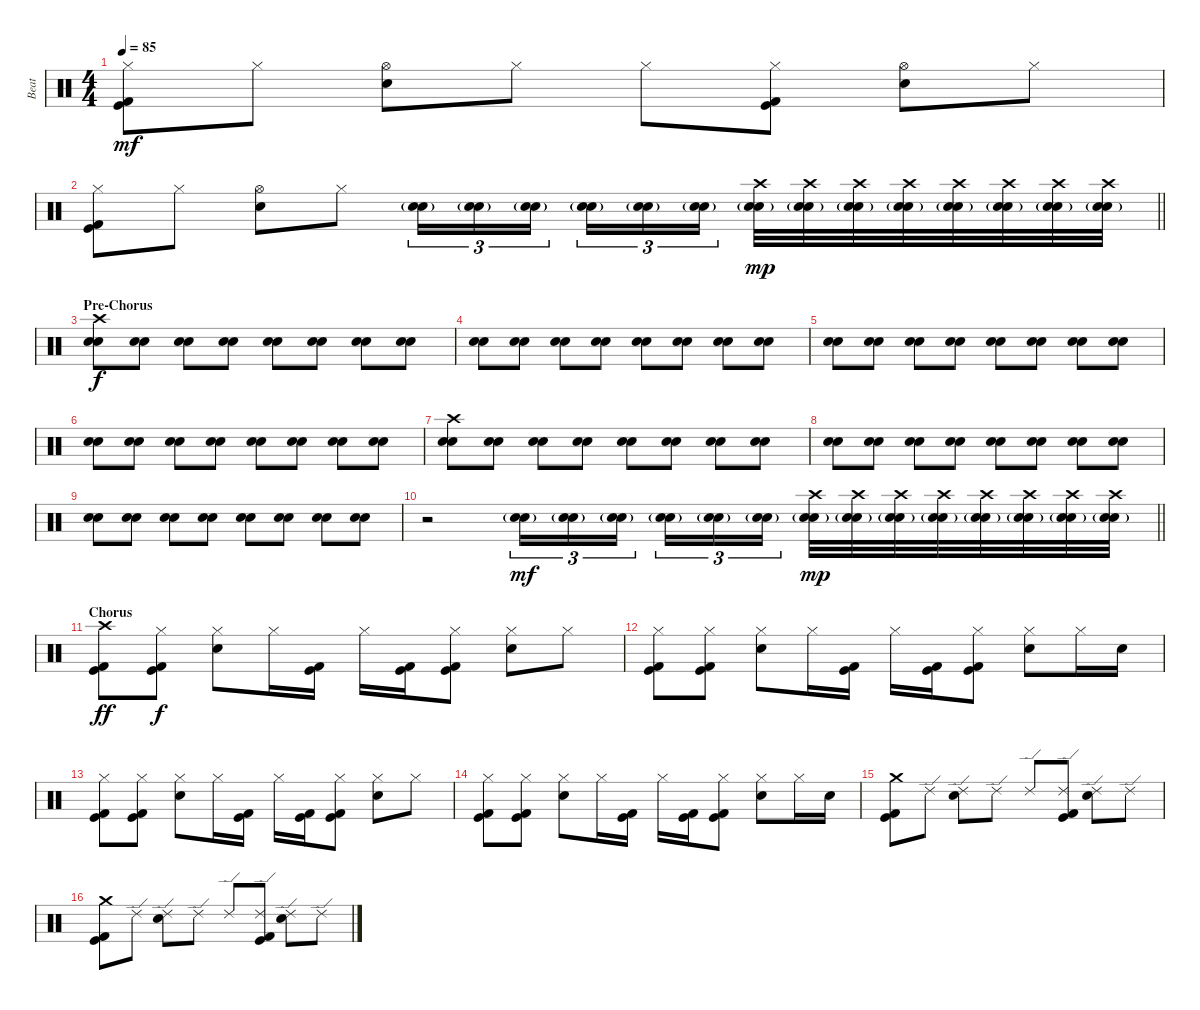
\track ("Beat" "Beat") {instrument percussion}
\staff {score}
\articulation defaults
\ts (4 4)
\tempo 85
\clef neutral
\ks c
("Hi-Hat (closed)" "Kick (hit)" "Kick (hit) 2").8{dy mf} "Hi-Hat (closed)".8 ("Hi-Hat (open)" "Snare (hit) 2").8 "Hi-Hat (closed)".8 "Hi-Hat (closed)".8 ("Hi-Hat (closed)" "Kick (hit)" "Kick (hit) 2").8 ("Hi-Hat (open)" "Snare (hit) 2").8 "Hi-Hat (closed)".8 |
\barLineRight lightlight
("Hi-Hat (closed)" "Kick (hit)" "Kick (hit) 2").8 "Hi-Hat (closed)".8 ("Hi-Hat (open)" "Snare (hit) 2").8 "Hi-Hat (closed)".8 ("Electric Snare (hit)" "Snare (hit) 2"{g}).16{tu (3 2)} ("Electric Snare (hit)" "Snare (hit) 2"{g}).16{tu (3 2)} ("Electric Snare (hit)" "Snare (hit) 2"{g}).16{tu (3 2) beam splitsecondary} ("Electric Snare (hit)" "Snare (hit) 2"{g}).16{tu (3 2)} ("Electric Snare (hit)" "Snare (hit) 2"{g}).16{tu (3 2)} ("Electric Snare (hit)" "Snare (hit) 2"{g}).16{tu (3 2)} ("Crash high (hit)" "Electric Snare (hit)" "Snare (hit) 2"{g}).32{dy mp} ("Crash high (hit)" "Electric Snare (hit)" "Snare (hit) 2"{g}).32 ("Crash high (hit)" "Electric Snare (hit)" "Snare (hit) 2"{g}).32 ("Crash high (hit)" "Electric Snare (hit)" "Snare (hit) 2"{g}).32 ("Crash high (hit)" "Electric Snare (hit)" "Snare (hit) 2"{g}).32 ("Crash high (hit)" "Electric Snare (hit)" "Snare (hit) 2"{g}).32 ("Crash high (hit)" "Electric Snare (hit)" "Snare (hit) 2"{g}).32 ("Crash high (hit)" "Electric Snare (hit)" "Snare (hit) 2"{g}).32 |
\section ("" "Pre-Chorus")
("Crash high (hit)" "Hand Clap (hit)" "Hand Clap (hit)").8{dy f} ("Hand Clap (hit)" "Hand Clap (hit)").8 ("Hand Clap (hit)" "Hand Clap (hit)").8 ("Hand Clap (hit)" "Hand Clap (hit)").8 ("Hand Clap (hit)" "Hand Clap (hit)").8 ("Hand Clap (hit)" "Hand Clap (hit)").8 ("Hand Clap (hit)" "Hand Clap (hit)").8 ("Hand Clap (hit)" "Hand Clap (hit)").8 |
("Hand Clap (hit)" "Hand Clap (hit)").8 ("Hand Clap (hit)" "Hand Clap (hit)").8 ("Hand Clap (hit)" "Hand Clap (hit)").8 ("Hand Clap (hit)" "Hand Clap (hit)").8 ("Hand Clap (hit)" "Hand Clap (hit)").8 ("Hand Clap (hit)" "Hand Clap (hit)").8 ("Hand Clap (hit)" "Hand Clap (hit)").8 ("Hand Clap (hit)" "Hand Clap (hit)").8 |
("Hand Clap (hit)" "Hand Clap (hit)").8 ("Hand Clap (hit)" "Hand Clap (hit)").8 ("Hand Clap (hit)" "Hand Clap (hit)").8 ("Hand Clap (hit)" "Hand Clap (hit)").8 ("Hand Clap (hit)" "Hand Clap (hit)").8 ("Hand Clap (hit)" "Hand Clap (hit)").8 ("Hand Clap (hit)" "Hand Clap (hit)").8 ("Hand Clap (hit)" "Hand Clap (hit)").8 |
("Hand Clap (hit)" "Hand Clap (hit)").8 ("Hand Clap (hit)" "Hand Clap (hit)").8 ("Hand Clap (hit)" "Hand Clap (hit)").8 ("Hand Clap (hit)" "Hand Clap (hit)").8 ("Hand Clap (hit)" "Hand Clap (hit)").8 ("Hand Clap (hit)" "Hand Clap (hit)").8 ("Hand Clap (hit)" "Hand Clap (hit)").8 ("Hand Clap (hit)" "Hand Clap (hit)").8 |
("Crash high (hit)" "Hand Clap (hit)" "Hand Clap (hit)").8 ("Hand Clap (hit)" "Hand Clap (hit)").8 ("Hand Clap (hit)" "Hand Clap (hit)").8 ("Hand Clap (hit)" "Hand Clap (hit)").8 ("Hand Clap (hit)" "Hand Clap (hit)").8 ("Hand Clap (hit)" "Hand Clap (hit)").8 ("Hand Clap (hit)" "Hand Clap (hit)").8 ("Hand Clap (hit)" "Hand Clap (hit)").8 |
("Hand Clap (hit)" "Hand Clap (hit)").8 ("Hand Clap (hit)" "Hand Clap (hit)").8 ("Hand Clap (hit)" "Hand Clap (hit)").8 ("Hand Clap (hit)" "Hand Clap (hit)").8 ("Hand Clap (hit)" "Hand Clap (hit)").8 ("Hand Clap (hit)" "Hand Clap (hit)").8 ("Hand Clap (hit)" "Hand Clap (hit)").8 ("Hand Clap (hit)" "Hand Clap (hit)").8 |
("Hand Clap (hit)" "Hand Clap (hit)").8 ("Hand Clap (hit)" "Hand Clap (hit)").8 ("Hand Clap (hit)" "Hand Clap (hit)").8 ("Hand Clap (hit)" "Hand Clap (hit)").8 ("Hand Clap (hit)" "Hand Clap (hit)").8 ("Hand Clap (hit)" "Hand Clap (hit)").8 ("Hand Clap (hit)" "Hand Clap (hit)").8 ("Hand Clap (hit)" "Hand Clap (hit)").8 |
\barLineRight lightlight
r.2 ("Electric Snare (hit)" "Snare (hit) 2"{g}).16{tu (3 2) dy mf} ("Electric Snare (hit)" "Snare (hit) 2"{g}).16{tu (3 2)} ("Electric Snare (hit)" "Snare (hit) 2"{g}).16{tu (3 2) beam splitsecondary} ("Electric Snare (hit)" "Snare (hit) 2"{g}).16{tu (3 2)} ("Electric Snare (hit)" "Snare (hit) 2"{g}).16{tu (3 2)} ("Electric Snare (hit)" "Snare (hit) 2"{g}).16{tu (3 2)} ("Crash high (hit)" "Electric Snare (hit)" "Snare (hit) 2"{g}).32{dy mp} ("Crash high (hit)" "Electric Snare (hit)" "Snare (hit) 2"{g}).32 ("Crash high (hit)" "Electric Snare (hit)" "Snare (hit) 2"{g}).32 ("Crash high (hit)" "Electric Snare (hit)" "Snare (hit) 2"{g}).32 ("Crash high (hit)" "Electric Snare (hit)" "Snare (hit) 2"{g}).32 ("Crash high (hit)" "Electric Snare (hit)" "Snare (hit) 2"{g}).32 ("Crash high (hit)" "Electric Snare (hit)" "Snare (hit) 2"{g}).32 ("Crash high (hit)" "Electric Snare (hit)" "Snare (hit) 2"{g}).32 |
\section ("" "Chorus")
("Crash high (hit)" "Kick (hit)" "Kick (hit) 2").8{dy ff} ("Hi-Hat (closed)" "Kick (hit)" "Kick (hit) 2").8{dy f} ("Hi-Hat (closed)" "Snare (hit) 2").8 "Hi-Hat (closed)".16 ("Kick (hit)" "Kick (hit) 2").16 "Hi-Hat (closed)".16 ("Kick (hit)" "Kick (hit) 2").16 ("Hi-Hat (closed)" "Kick (hit)" "Kick (hit) 2").8 ("Hi-Hat (closed)" "Snare (hit) 2").8 "Hi-Hat (closed)".8 |
("Hi-Hat (closed)" "Kick (hit)" "Kick (hit) 2").8 ("Hi-Hat (closed)" "Kick (hit)" "Kick (hit) 2").8 ("Hi-Hat (closed)" "Snare (hit) 2").8 "Hi-Hat (closed)".16 ("Kick (hit)" "Kick (hit) 2").16 "Hi-Hat (closed)".16 ("Kick (hit)" "Kick (hit) 2").16 ("Hi-Hat (closed)" "Kick (hit)" "Kick (hit) 2").8 ("Hi-Hat (closed)" "Snare (hit) 2").8 "Hi-Hat (closed)".16 "Snare (hit) 2".16 |
("Hi-Hat (closed)" "Kick (hit)" "Kick (hit) 2").8 ("Hi-Hat (closed)" "Kick (hit)" "Kick (hit) 2").8 ("Hi-Hat (closed)" "Snare (hit) 2").8 "Hi-Hat (closed)".16 ("Kick (hit)" "Kick (hit) 2").16 "Hi-Hat (closed)".16 ("Kick (hit)" "Kick (hit) 2").16 ("Hi-Hat (closed)" "Kick (hit)" "Kick (hit) 2").8 ("Hi-Hat (closed)" "Snare (hit) 2").8 "Hi-Hat (closed)".8 |
("Hi-Hat (closed)" "Kick (hit)" "Kick (hit) 2").8 ("Hi-Hat (closed)" "Kick (hit)" "Kick (hit) 2").8 ("Hi-Hat (closed)" "Snare (hit) 2").8 "Hi-Hat (closed)".16 ("Kick (hit)" "Kick (hit) 2").16 "Hi-Hat (closed)".16 ("Kick (hit)" "Kick (hit) 2").16 ("Hi-Hat (closed)" "Kick (hit)" "Kick (hit) 2").8 ("Hi-Hat (closed)" "Snare (hit) 2").8 "Hi-Hat (closed)".16 "Snare (hit) 2".16 |
("Crash medium (hit)" "Kick (hit)" "Kick (hit) 2").8 "Ride (edge) 2".8 ("Ride (edge) 2" "Snare (hit) 2").8 "Ride (edge) 2".8 "Ride (edge) 2".8 ("Ride (edge) 2" "Kick (hit)" "Kick (hit) 2").8 ("Ride (edge) 2" "Snare (hit) 2").8 "Ride (edge) 2".8 |
("Crash medium (hit)" "Kick (hit)" "Kick (hit) 2").8 "Ride (edge) 2".8 ("Ride (edge) 2" "Snare (hit) 2").8 "Ride (edge) 2".8 "Ride (edge) 2".8 ("Ride (edge) 2" "Kick (hit)" "Kick (hit) 2").8 ("Ride (edge) 2" "Snare (hit) 2").8 "Ride (edge) 2".8
